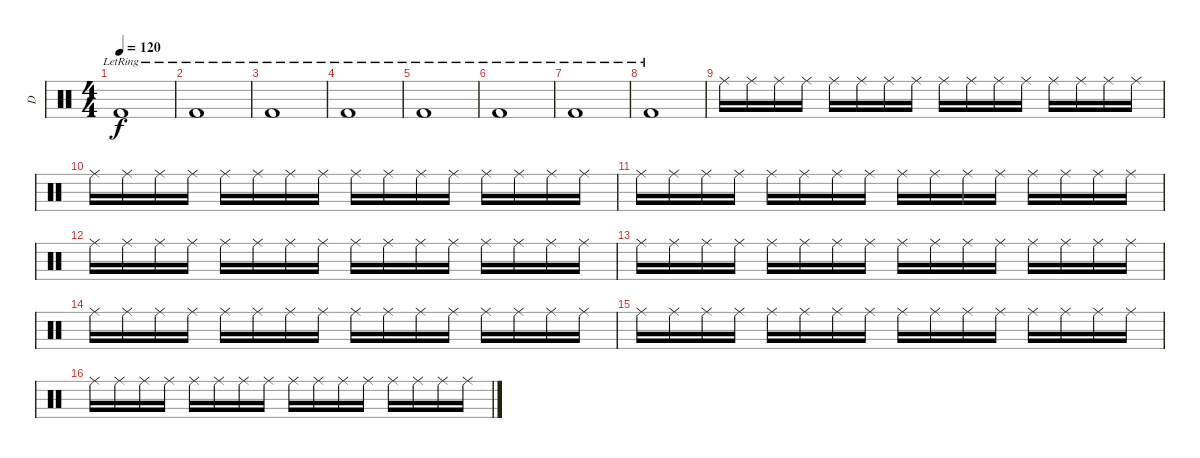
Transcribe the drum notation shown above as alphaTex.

\track ("D" "D") {instrument percussion}
\staff {score}
\articulation defaults
\ts (4 4)
\tempo 120
\clef neutral
\ks c "Kick (hit) 2"{lr}.1{dy f}
|
"Kick (hit) 2"{lr}.1 |
"Kick (hit) 2"{lr}.1 |
"Kick (hit) 2"{lr}.1 |
"Kick (hit) 2"{lr}.1 |
"Kick (hit) 2"{lr}.1 |
"Kick (hit) 2"{lr}.1 |
"Kick (hit) 2"{lr}.1 |
"Ride (middle)".16 "Ride (middle)".16 "Ride (middle)".16 "Ride (middle)".16 "Ride (middle)".16 "Ride (middle)".16 "Ride (middle)".16 "Ride (middle)".16 "Ride (middle)".16 "Ride (middle)".16 "Ride (middle)".16 "Ride (middle)".16 "Ride (middle)".16 "Ride (middle)".16 "Ride (middle)".16 "Ride (middle)".16 |
"Ride (middle)".16 "Ride (middle)".16 "Ride (middle)".16 "Ride (middle)".16 "Ride (middle)".16 "Ride (middle)".16 "Ride (middle)".16 "Ride (middle)".16 "Ride (middle)".16 "Ride (middle)".16 "Ride (middle)".16 "Ride (middle)".16 "Ride (middle)".16 "Ride (middle)".16 "Ride (middle)".16 "Ride (middle)".16 |
"Ride (middle)".16 "Ride (middle)".16 "Ride (middle)".16 "Ride (middle)".16 "Ride (middle)".16 "Ride (middle)".16 "Ride (middle)".16 "Ride (middle)".16 "Ride (middle)".16 "Ride (middle)".16 "Ride (middle)".16 "Ride (middle)".16 "Ride (middle)".16 "Ride (middle)".16 "Ride (middle)".16 "Ride (middle)".16 |
"Ride (middle)".16 "Ride (middle)".16 "Ride (middle)".16 "Ride (middle)".16 "Ride (middle)".16 "Ride (middle)".16 "Ride (middle)".16 "Ride (middle)".16 "Ride (middle)".16 "Ride (middle)".16 "Ride (middle)".16 "Ride (middle)".16 "Ride (middle)".16 "Ride (middle)".16 "Ride (middle)".16 "Ride (middle)".16 |
"Ride (middle)".16 "Ride (middle)".16 "Ride (middle)".16 "Ride (middle)".16 "Ride (middle)".16 "Ride (middle)".16 "Ride (middle)".16 "Ride (middle)".16 "Ride (middle)".16 "Ride (middle)".16 "Ride (middle)".16 "Ride (middle)".16 "Ride (middle)".16 "Ride (middle)".16 "Ride (middle)".16 "Ride (middle)".16 |
"Ride (middle)".16 "Ride (middle)".16 "Ride (middle)".16 "Ride (middle)".16 "Ride (middle)".16 "Ride (middle)".16 "Ride (middle)".16 "Ride (middle)".16 "Ride (middle)".16 "Ride (middle)".16 "Ride (middle)".16 "Ride (middle)".16 "Ride (middle)".16 "Ride (middle)".16 "Ride (middle)".16 "Ride (middle)".16 |
"Ride (middle)".16 "Ride (middle)".16 "Ride (middle)".16 "Ride (middle)".16 "Ride (middle)".16 "Ride (middle)".16 "Ride (middle)".16 "Ride (middle)".16 "Ride (middle)".16 "Ride (middle)".16 "Ride (middle)".16 "Ride (middle)".16 "Ride (middle)".16 "Ride (middle)".16 "Ride (middle)".16 "Ride (middle)".16 |
"Ride (middle)".16 "Ride (middle)".16 "Ride (middle)".16 "Ride (middle)".16 "Ride (middle)".16 "Ride (middle)".16 "Ride (middle)".16 "Ride (middle)".16 "Ride (middle)".16 "Ride (middle)".16 "Ride (middle)".16 "Ride (middle)".16 "Ride (middle)".16 "Ride (middle)".16 "Ride (middle)".16 "Ride (middle)".16
